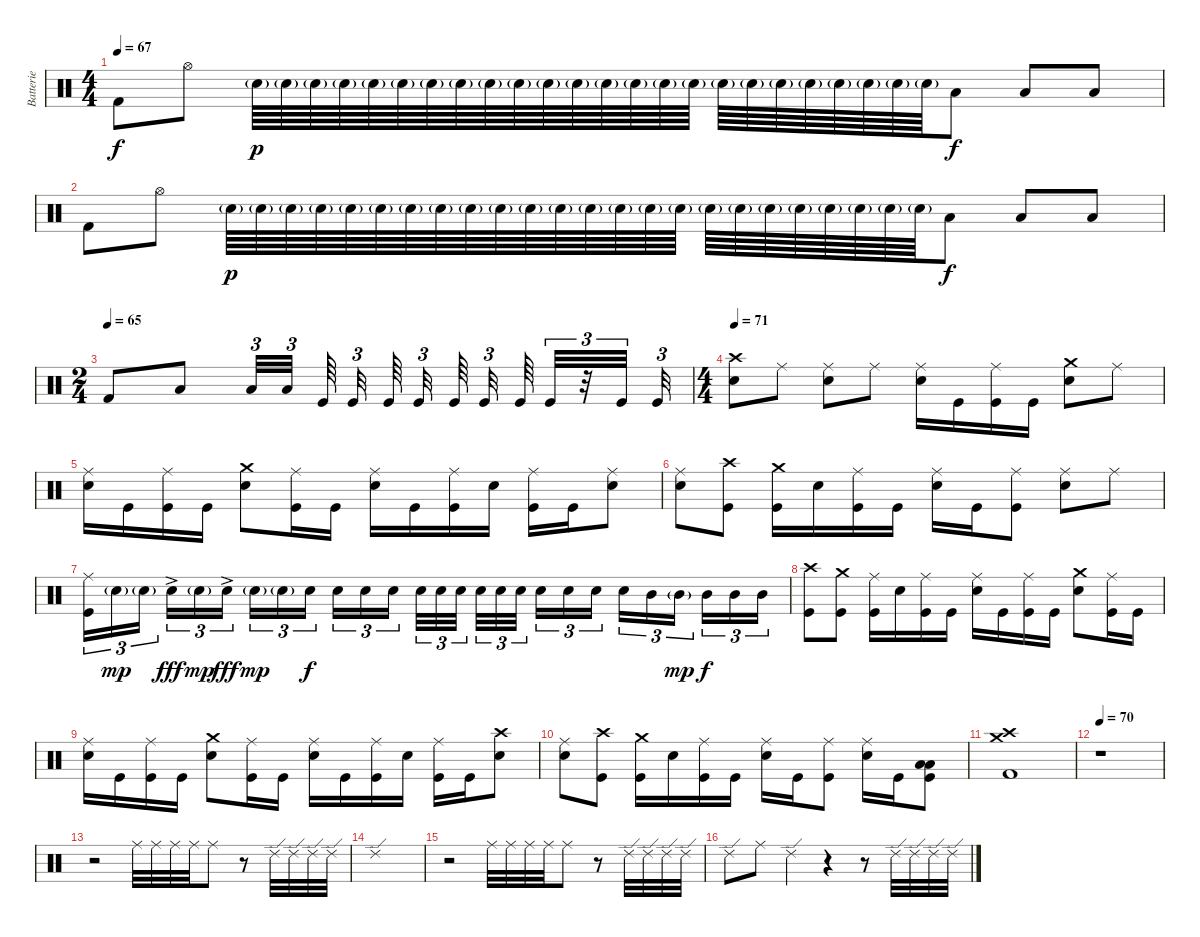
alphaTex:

\track ("Batterie" "Batterie") {instrument percussion}
\staff {score}
\articulation defaults
\ts (4 4)
\tempo 67
\clef neutral
\ks c "Kick (hit) 2".8{dy f} "Hi-Hat (open)".8 "Electric Snare (hit)"{g}.64{dy p} "Electric Snare (hit)"{g}.64 "Electric Snare (hit)"{g}.64 "Electric Snare (hit)"{g}.64 "Electric Snare (hit)"{g}.64 "Electric Snare (hit)"{g}.64 "Electric Snare (hit)"{g}.64 "Electric Snare (hit)"{g}.64 "Electric Snare (hit)"{g}.64 "Electric Snare (hit)"{g}.64 "Electric Snare (hit)"{g}.64 "Electric Snare (hit)"{g}.64 "Electric Snare (hit)"{g}.64 "Electric Snare (hit)"{g}.64 "Electric Snare (hit)"{g}.64 "Electric Snare (hit)"{g}.64 "Electric Snare (hit)"{g}.64 "Electric Snare (hit)"{g}.64 "Electric Snare (hit)"{g}.64 "Electric Snare (hit)"{g}.64 "Electric Snare (hit)"{g}.64 "Electric Snare (hit)"{g}.64 "Electric Snare (hit)"{g}.64 "Electric Snare (hit)"{g}.64 "Low Tom (hit)".8{dy f} "Low Floor Tom (hit)".8 "Low Tom (hit)".8
|
"Kick (hit) 2".8 "Hi-Hat (open)".8 "Electric Snare (hit)"{g}.64{dy p} "Electric Snare (hit)"{g}.64 "Electric Snare (hit)"{g}.64 "Electric Snare (hit)"{g}.64 "Electric Snare (hit)"{g}.64 "Electric Snare (hit)"{g}.64 "Electric Snare (hit)"{g}.64 "Electric Snare (hit)"{g}.64 "Electric Snare (hit)"{g}.64 "Electric Snare (hit)"{g}.64 "Electric Snare (hit)"{g}.64 "Electric Snare (hit)"{g}.64 "Electric Snare (hit)"{g}.64 "Electric Snare (hit)"{g}.64 "Electric Snare (hit)"{g}.64 "Electric Snare (hit)"{g}.64 "Electric Snare (hit)"{g}.64 "Electric Snare (hit)"{g}.64 "Electric Snare (hit)"{g}.64 "Electric Snare (hit)"{g}.64 "Electric Snare (hit)"{g}.64 "Electric Snare (hit)"{g}.64 "Electric Snare (hit)"{g}.64 "Electric Snare (hit)"{g}.64 "Low Tom (hit)".8{dy f} "Low Floor Tom (hit)".8 "Low Tom (hit)".8 |
\ts (2 4)
\tempo (65)
"Kick (hit) 2".8{volume 14} "Low Tom (hit)".8 "Low Floor Tom (hit)".32{tu (3 2)} "Low Floor Tom (hit)".32{tu (3 2)} "Kick (hit)".64 "Kick (hit)".32{tu (3 2)} "Kick (hit)".64 "Kick (hit)".32{tu (3 2)} "Kick (hit)".64 "Kick (hit)".32{tu (3 2)} "Kick (hit)".64 "Kick (hit)".32{tu (3 2)} r.32{tu (3 2)} "Kick (hit)".32{tu (3 2)} "Kick (hit)".32{tu (3 2)} |
\ts (4 4)
\tempo 68
\tempo 71
("Crash high (hit)" "Electric Snare (hit)").8 "Ride (middle)".8 ("Ride (middle)" "Electric Snare (hit)").8 "Ride (middle)".8 ("Ride (middle)" "Electric Snare (hit)").16 "Kick (hit)".16 ("Ride (middle)" "Kick (hit)").16 "Kick (hit)".16 ("Crash medium (hit)" "Electric Snare (hit)").8 "Ride (middle)".8 |
("Ride (middle)" "Electric Snare (hit)").16 "Kick (hit)".16 ("Ride (middle)" "Kick (hit)").16 "Kick (hit)".16 ("Crash medium (hit)" "Electric Snare (hit)").8 ("Ride (middle)" "Kick (hit)").16 "Kick (hit)".16 ("Ride (middle)" "Electric Snare (hit)").16 "Kick (hit)".16 ("Ride (middle)" "Kick (hit)").16 "Electric Snare (hit)".16 ("Ride (middle)" "Kick (hit)").16 "Kick (hit)".16 ("Ride (middle)" "Electric Snare (hit)").8 |
("Ride (middle)" "Electric Snare (hit)").8 ("Crash high (hit)" "Kick (hit)").8 ("Crash medium (hit)" "Kick (hit)").16 "Electric Snare (hit)".16 ("Ride (middle)" "Kick (hit)").16 "Kick (hit)".16 ("Ride (middle)" "Electric Snare (hit)").16 "Kick (hit)".16 ("Ride (middle)" "Kick (hit)").8 ("Ride (middle)" "Electric Snare (hit)").8 "Ride (middle)".8 |
("Ride (middle)" "Kick (hit)").16{tu (3 2)} "Electric Snare (hit)"{g}.16{tu (3 2) dy mp} "Electric Snare (hit)"{g}.16{tu (3 2)} "Electric Snare (hit)"{ac}.16{tu (3 2) dy fff} "Electric Snare (hit)"{g}.16{tu (3 2) dy mp} "Electric Snare (hit)"{ac}.16{tu (3 2) dy fff} "Electric Snare (hit)"{g}.16{tu (3 2) dy mp} "Electric Snare (hit)"{g}.16{tu (3 2)} "Electric Snare (hit)".16{tu (3 2) dy f} "Electric Snare (hit)".16{tu (3 2)} "Electric Snare (hit)".16{tu (3 2)} "Electric Snare (hit)".16{tu (3 2)} "Electric Snare (hit)".32{tu (3 2)} "Electric Snare (hit)".32{tu (3 2)} "Electric Snare (hit)".32{tu (3 2)} "Electric Snare (hit)".32{tu (3 2)} "Electric Snare (hit)".32{tu (3 2)} "Electric Snare (hit)".32{tu (3 2)} "Electric Snare (hit)".16{tu (3 2)} "Electric Snare (hit)".16{tu (3 2)} "Electric Snare (hit)".16{tu (3 2)} "Electric Snare (hit)".16{tu (3 2)} "Mid Tom (hit)".16{tu (3 2)} "Mid Tom (hit)"{g}.16{tu (3 2) dy mp} "Mid Tom (hit)".16{tu (3 2) dy f} "Mid Tom (hit)".16{tu (3 2)} "Mid Tom (hit)".16{tu (3 2)} |
("Crash high (hit)" "Kick (hit)").8 ("Crash medium (hit)" "Kick (hit)").8 ("Ride (middle)" "Kick (hit)").16 "Electric Snare (hit)".16 ("Ride (middle)" "Kick (hit)").16 "Kick (hit)".16 ("Ride (middle)" "Electric Snare (hit)").16 "Kick (hit)".16 ("Ride (middle)" "Kick (hit)").16 "Kick (hit)".16 ("Crash medium (hit)" "Electric Snare (hit)").8 ("Ride (middle)" "Kick (hit)").16 "Kick (hit)".16 |
("Ride (middle)" "Electric Snare (hit)").16 "Kick (hit)".16 ("Ride (middle)" "Kick (hit)").16 "Kick (hit)".16 ("Crash medium (hit)" "Electric Snare (hit)").8 ("Ride (middle)" "Kick (hit)").16 "Kick (hit)".16 ("Ride (middle)" "Electric Snare (hit)").16 "Kick (hit)".16 ("Ride (middle)" "Kick (hit)").16 "Electric Snare (hit)".16 ("Ride (middle)" "Kick (hit)").16 "Kick (hit)".16 ("Crash high (hit)" "Electric Snare (hit)").8 |
("Ride (middle)" "Electric Snare (hit)").8 ("Crash high (hit)" "Kick (hit)").8 ("Crash medium (hit)" "Kick (hit)").16 "Electric Snare (hit)".16 ("Ride (middle)" "Kick (hit)").16 "Kick (hit)".16 ("Ride (middle)" "Electric Snare (hit)").16 "Kick (hit)".16 ("Ride (middle)" "Kick (hit)").8 ("Ride (middle)" "Electric Snare (hit)").16 "Kick (hit)".16 ("Low Tom (hit)" "Low Floor Tom (hit)" "Kick (hit)").8 |
("Crash high (hit)" "Crash medium (hit)" "Kick (hit) 2").1 |
\tempo 70
r.1 |
r.2 "Ride (middle)".32 "Ride (middle)".32 "Ride (middle)".32 "Ride (middle)".32 "Ride (middle)".8 r.8 "Ride (edge) 2".32 "Ride (edge) 2".32 "Ride (edge) 2".32 "Ride (edge) 2".32 |
"Ride (edge) 2".1 |
r.2 "Ride (middle)".32 "Ride (middle)".32 "Ride (middle)".32 "Ride (middle)".32 "Ride (middle)".8 r.8 "Ride (edge) 2".32 "Ride (edge) 2".32 "Ride (edge) 2".32 "Ride (edge) 2".32 |
"Ride (edge) 2".8 "Ride (middle)".8 "Ride (edge) 2".4 r.4 r.8 "Ride (edge) 2".32 "Ride (edge) 2".32 "Ride (edge) 2".32 "Ride (edge) 2".32
